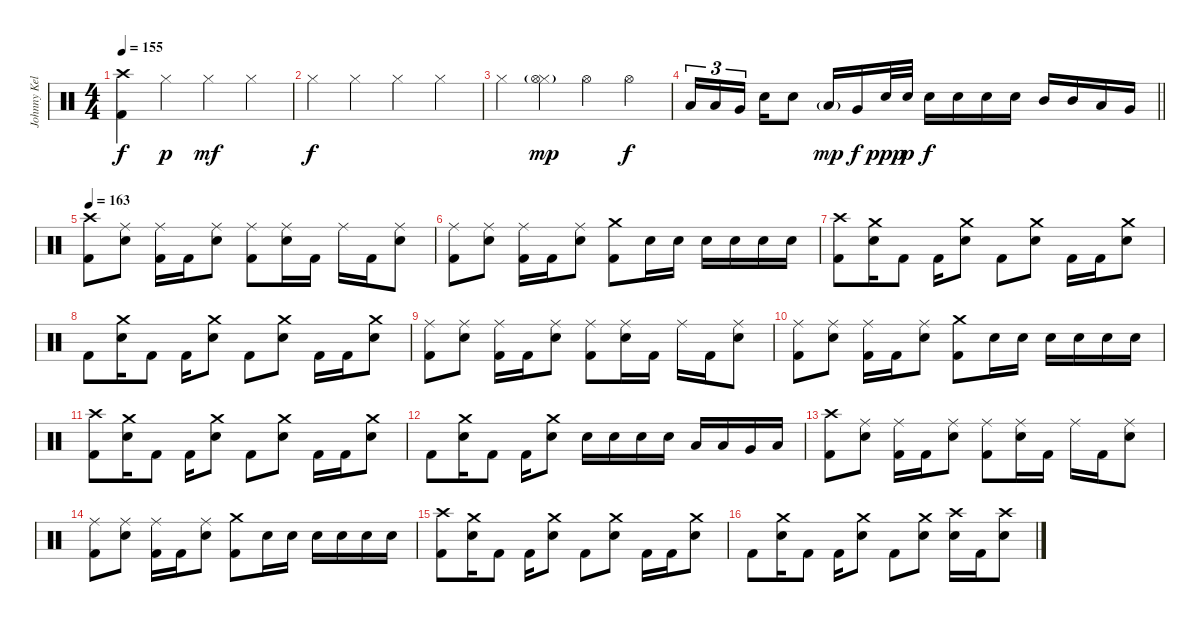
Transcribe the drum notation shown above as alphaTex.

\track ("Johnny Kelly" "Johnny Kel") {instrument percussion}
\staff {score}
\articulation defaults
\ts (4 4)
\tempo 155
\clef neutral
\ks c
("Crash high (hit)" "Kick (hit) 2").4{dy f} "Hi-Hat (closed)".4{dy p} "Hi-Hat (closed)".4{dy mf} "Hi-Hat (closed)".4 |
"Hi-Hat (closed)".4{dy f} "Hi-Hat (closed)".4 "Hi-Hat (closed)".4 "Hi-Hat (closed)".4 |
"Hi-Hat (closed)".4 ("Hi-Hat (closed)" "Hi-Hat (open)"{g}).4{dy mp} "Hi-Hat (open)".4 "Hi-Hat (open)".4{dy f} |
\barLineRight lightlight "Low Tom (hit)".16{tu (3 2)} "Low Tom (hit)".16{tu (3 2)} "Very Low Tom (hit)".16{tu (3 2) beam splitsecondary} "Electric Snare (hit)".16 "Electric Snare (hit)".8 "Low Floor Tom (hit)"{g}.16{dy mp} "Very Low Tom (hit)".16{dy f} "Electric Snare (hit)".32{dy ppp} "Electric Snare (hit)".32{dy p} "Electric Snare (hit)".16{dy f} "Electric Snare (hit)".16 "Electric Snare (hit)".16 "Electric Snare (hit)".16 "Mid Tom (hit)".16 "Mid Tom (hit)".16 "Low Tom (hit)".16 "Very Low Tom (hit)".16
|
\section ("" "")
\tempo 163
("Crash high (hit)" "Kick (hit) 2").8 ("Ride (middle)" "Electric Snare (hit)").8 ("Ride (middle)" "Kick (hit) 2").16 "Kick (hit) 2".16 ("Ride (middle)" "Electric Snare (hit)").8 ("Ride (middle)" "Kick (hit) 2").8 ("Ride (middle)" "Electric Snare (hit)").16 "Kick (hit) 2".16 "Ride (middle)".16 "Kick (hit) 2".16 ("Ride (middle)" "Electric Snare (hit)").8 |
("Ride (middle)" "Kick (hit) 2").8 ("Ride (middle)" "Electric Snare (hit)").8 ("Ride (middle)" "Kick (hit) 2").16 "Kick (hit) 2".16 ("Ride (middle)" "Electric Snare (hit)").8 ("Crash medium (hit)" "Kick (hit) 2").8 "Electric Snare (hit)".16 "Electric Snare (hit)".16 "Electric Snare (hit)".16 "Electric Snare (hit)".16 "Electric Snare (hit)".16 "Electric Snare (hit)".16 |
("Crash high (hit)" "Kick (hit) 2").8 ("Crash medium (hit)" "Electric Snare (hit)").16 "Kick (hit) 2".8 "Kick (hit) 2".16 ("Crash medium (hit)" "Electric Snare (hit)").8 "Kick (hit) 2".8 ("Crash medium (hit)" "Electric Snare (hit)").8 "Kick (hit) 2".16 "Kick (hit) 2".16 ("Crash medium (hit)" "Electric Snare (hit)").8 |
"Kick (hit) 2".8 ("Crash medium (hit)" "Electric Snare (hit)").16 "Kick (hit) 2".8 "Kick (hit) 2".16 ("Crash medium (hit)" "Electric Snare (hit)").8 "Kick (hit) 2".8 ("Crash medium (hit)" "Electric Snare (hit)").8 "Kick (hit) 2".16 "Kick (hit) 2".16 ("Crash medium (hit)" "Electric Snare (hit)").8 |
("Ride (middle)" "Kick (hit) 2").8 ("Ride (middle)" "Electric Snare (hit)").8 ("Ride (middle)" "Kick (hit) 2").16 "Kick (hit) 2".16 ("Ride (middle)" "Electric Snare (hit)").8 ("Ride (middle)" "Kick (hit) 2").8 ("Ride (middle)" "Electric Snare (hit)").16 "Kick (hit) 2".16 "Ride (middle)".16 "Kick (hit) 2".16 ("Ride (middle)" "Electric Snare (hit)").8 |
("Ride (middle)" "Kick (hit) 2").8 ("Ride (middle)" "Electric Snare (hit)").8 ("Ride (middle)" "Kick (hit) 2").16 "Kick (hit) 2".16 ("Ride (middle)" "Electric Snare (hit)").8 ("Crash medium (hit)" "Kick (hit) 2").8 "Electric Snare (hit)".16 "Electric Snare (hit)".16 "Electric Snare (hit)".16 "Electric Snare (hit)".16 "Electric Snare (hit)".16 "Electric Snare (hit)".16 |
("Crash high (hit)" "Kick (hit) 2").8 ("Crash medium (hit)" "Electric Snare (hit)").16 "Kick (hit) 2".8 "Kick (hit) 2".16 ("Crash medium (hit)" "Electric Snare (hit)").8 "Kick (hit) 2".8 ("Crash medium (hit)" "Electric Snare (hit)").8 "Kick (hit) 2".16 "Kick (hit) 2".16 ("Crash medium (hit)" "Electric Snare (hit)").8 |
"Kick (hit) 2".8 ("Crash medium (hit)" "Electric Snare (hit)").16 "Kick (hit) 2".8 "Kick (hit) 2".16 ("Crash medium (hit)" "Electric Snare (hit)").8 "Electric Snare (hit)".16 "Electric Snare (hit)".16 "Electric Snare (hit)".16 "Electric Snare (hit)".16 "Low Tom (hit)".16 "Low Tom (hit)".16 "Very Low Tom (hit)".16 "Low Floor Tom (hit)".16 |
("Crash high (hit)" "Kick (hit) 2").8 ("Ride (middle)" "Electric Snare (hit)").8 ("Ride (middle)" "Kick (hit) 2").16 "Kick (hit) 2".16 ("Ride (middle)" "Electric Snare (hit)").8 ("Ride (middle)" "Kick (hit) 2").8 ("Ride (middle)" "Electric Snare (hit)").16 "Kick (hit) 2".16 "Ride (middle)".16 "Kick (hit) 2".16 ("Ride (middle)" "Electric Snare (hit)").8 |
("Ride (middle)" "Kick (hit) 2").8 ("Ride (middle)" "Electric Snare (hit)").8 ("Ride (middle)" "Kick (hit) 2").16 "Kick (hit) 2".16 ("Ride (middle)" "Electric Snare (hit)").8 ("Crash medium (hit)" "Kick (hit) 2").8 "Electric Snare (hit)".16 "Electric Snare (hit)".16 "Electric Snare (hit)".16 "Electric Snare (hit)".16 "Electric Snare (hit)".16 "Electric Snare (hit)".16 |
("Crash high (hit)" "Kick (hit) 2").8 ("Crash medium (hit)" "Electric Snare (hit)").16 "Kick (hit) 2".8 "Kick (hit) 2".16 ("Crash medium (hit)" "Electric Snare (hit)").8 "Kick (hit) 2".8 ("Crash medium (hit)" "Electric Snare (hit)").8 "Kick (hit) 2".16 "Kick (hit) 2".16 ("Crash medium (hit)" "Electric Snare (hit)").8 |
"Kick (hit) 2".8 ("Crash medium (hit)" "Electric Snare (hit)").16 "Kick (hit) 2".8 "Kick (hit) 2".16 ("Crash medium (hit)" "Electric Snare (hit)").8 "Kick (hit) 2".8 ("Crash medium (hit)" "Electric Snare (hit)").8 ("Crash high (hit)" "Electric Snare (hit)").16 "Kick (hit) 2".16 ("Crash high (hit)" "Electric Snare (hit)").8
